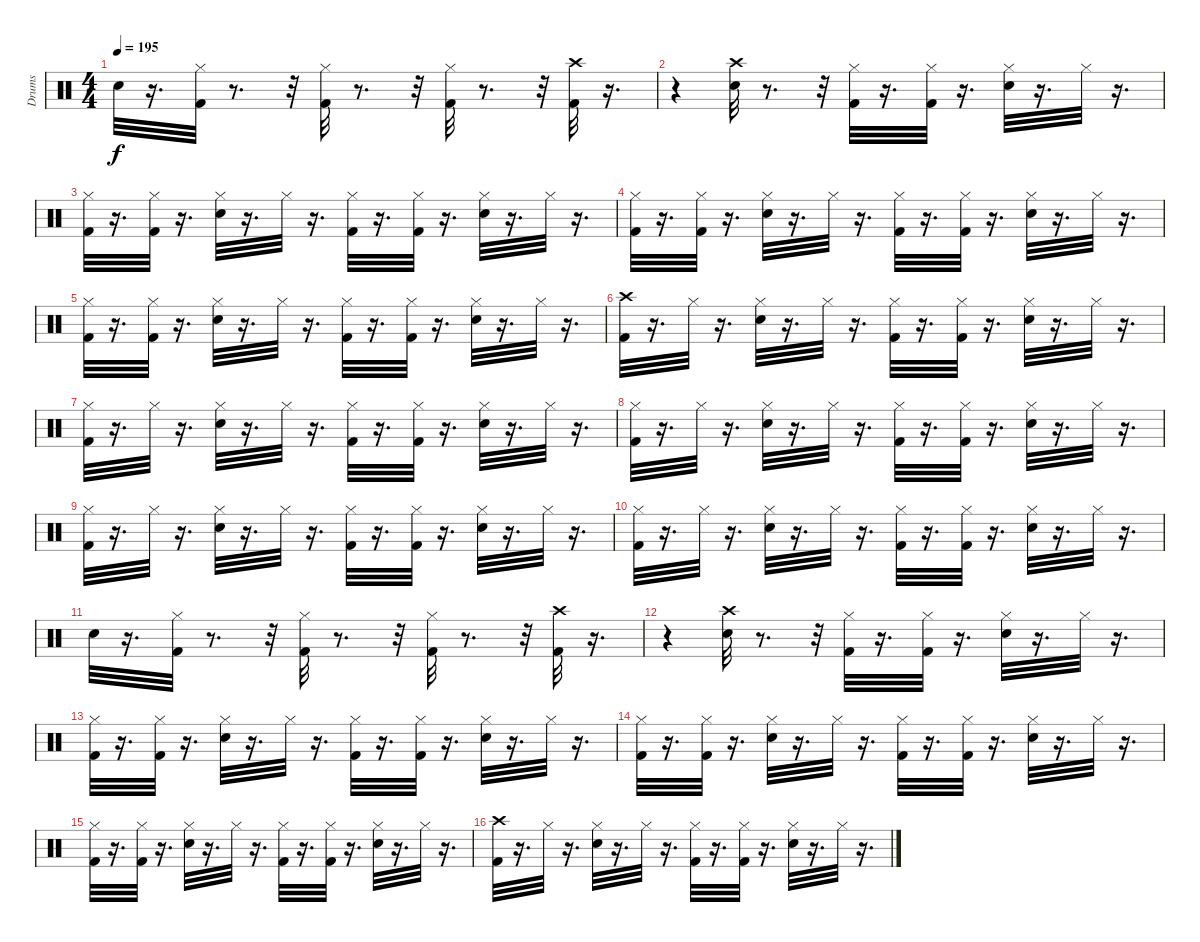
\track ("Drums" "Drums") {instrument percussion}
\staff {score}
\articulation defaults
\ts (4 4)
\tempo 195
\clef neutral
\ks c "Snare (hit) 2".32{dy f}
r.16{d} ("Hi-Hat (closed)" "Kick (hit) 2").32 r.8{d} r.32 ("Hi-Hat (closed)" "Kick (hit) 2").32 r.8{d} r.32 ("Hi-Hat (closed)" "Kick (hit) 2").32 r.8{d} r.32 ("Crash high (hit)" "Kick (hit) 2").32 r.16{d} |
r.4 ("Crash high (hit)" "Snare (hit) 2").32 r.8{d} r.32 ("Hi-Hat (closed)" "Kick (hit) 2").32 r.16{d} ("Hi-Hat (closed)" "Kick (hit) 2").32 r.16{d} ("Hi-Hat (closed)" "Snare (hit) 2").32 r.16{d} "Hi-Hat (closed)".32 r.16{d} |
("Hi-Hat (closed)" "Kick (hit) 2").32 r.16{d} ("Hi-Hat (closed)" "Kick (hit) 2").32 r.16{d} ("Hi-Hat (closed)" "Snare (hit) 2").32 r.16{d} "Hi-Hat (closed)".32 r.16{d} ("Hi-Hat (closed)" "Kick (hit) 2").32 r.16{d} ("Hi-Hat (closed)" "Kick (hit) 2").32 r.16{d} ("Hi-Hat (closed)" "Snare (hit) 2").32 r.16{d} "Hi-Hat (closed)".32 r.16{d} |
("Hi-Hat (closed)" "Kick (hit) 2").32 r.16{d} ("Hi-Hat (closed)" "Kick (hit) 2").32 r.16{d} ("Hi-Hat (closed)" "Snare (hit) 2").32 r.16{d} "Hi-Hat (closed)".32 r.16{d} ("Hi-Hat (closed)" "Kick (hit) 2").32 r.16{d} ("Hi-Hat (closed)" "Kick (hit) 2").32 r.16{d} ("Hi-Hat (closed)" "Snare (hit) 2").32 r.16{d} "Hi-Hat (closed)".32 r.16{d} |
("Hi-Hat (closed)" "Kick (hit) 2").32 r.16{d} ("Hi-Hat (closed)" "Kick (hit) 2").32 r.16{d} ("Hi-Hat (closed)" "Snare (hit) 2").32 r.16{d} "Hi-Hat (closed)".32 r.16{d} ("Hi-Hat (closed)" "Kick (hit) 2").32 r.16{d} ("Hi-Hat (closed)" "Kick (hit) 2").32 r.16{d} ("Hi-Hat (closed)" "Snare (hit) 2").32 r.16{d} "Hi-Hat (closed)".32 r.16{d} |
("Crash high (hit)" "Kick (hit) 2").32 r.16{d} "Hi-Hat (closed)".32 r.16{d} ("Hi-Hat (closed)" "Snare (hit) 2").32 r.16{d} "Hi-Hat (closed)".32 r.16{d} ("Hi-Hat (closed)" "Kick (hit) 2").32 r.16{d} ("Hi-Hat (closed)" "Kick (hit) 2").32 r.16{d} ("Hi-Hat (closed)" "Snare (hit) 2").32 r.16{d} "Hi-Hat (closed)".32 r.16{d} |
("Hi-Hat (closed)" "Kick (hit) 2").32 r.16{d} "Hi-Hat (closed)".32 r.16{d} ("Hi-Hat (closed)" "Snare (hit) 2").32 r.16{d} "Hi-Hat (closed)".32 r.16{d} ("Hi-Hat (closed)" "Kick (hit) 2").32 r.16{d} ("Hi-Hat (closed)" "Kick (hit) 2").32 r.16{d} ("Hi-Hat (closed)" "Snare (hit) 2").32 r.16{d} "Hi-Hat (closed)".32 r.16{d} |
("Hi-Hat (closed)" "Kick (hit) 2").32 r.16{d} "Hi-Hat (closed)".32 r.16{d} ("Hi-Hat (closed)" "Snare (hit) 2").32 r.16{d} "Hi-Hat (closed)".32 r.16{d} ("Hi-Hat (closed)" "Kick (hit) 2").32 r.16{d} ("Hi-Hat (closed)" "Kick (hit) 2").32 r.16{d} ("Hi-Hat (closed)" "Snare (hit) 2").32 r.16{d} "Hi-Hat (closed)".32 r.16{d} |
("Hi-Hat (closed)" "Kick (hit) 2").32 r.16{d} "Hi-Hat (closed)".32 r.16{d} ("Hi-Hat (closed)" "Snare (hit) 2").32 r.16{d} "Hi-Hat (closed)".32 r.16{d} ("Hi-Hat (closed)" "Kick (hit) 2").32 r.16{d} ("Hi-Hat (closed)" "Kick (hit) 2").32 r.16{d} ("Hi-Hat (closed)" "Snare (hit) 2").32 r.16{d} "Hi-Hat (closed)".32 r.16{d} |
("Hi-Hat (closed)" "Kick (hit) 2").32 r.16{d} "Hi-Hat (closed)".32 r.16{d} ("Hi-Hat (closed)" "Snare (hit) 2").32 r.16{d} "Hi-Hat (closed)".32 r.16{d} ("Hi-Hat (closed)" "Kick (hit) 2").32 r.16{d} ("Hi-Hat (closed)" "Kick (hit) 2").32 r.16{d} ("Hi-Hat (closed)" "Snare (hit) 2").32 r.16{d} "Hi-Hat (closed)".32 r.16{d} |
"Snare (hit) 2".32 r.16{d} ("Hi-Hat (closed)" "Kick (hit) 2").32 r.8{d} r.32 ("Hi-Hat (closed)" "Kick (hit) 2").32 r.8{d} r.32 ("Hi-Hat (closed)" "Kick (hit) 2").32 r.8{d} r.32 ("Crash high (hit)" "Kick (hit) 2").32 r.16{d} |
r.4 ("Crash high (hit)" "Snare (hit) 2").32 r.8{d} r.32 ("Hi-Hat (closed)" "Kick (hit) 2").32 r.16{d} ("Hi-Hat (closed)" "Kick (hit) 2").32 r.16{d} ("Hi-Hat (closed)" "Snare (hit) 2").32 r.16{d} "Hi-Hat (closed)".32 r.16{d} |
("Hi-Hat (closed)" "Kick (hit) 2").32 r.16{d} ("Hi-Hat (closed)" "Kick (hit) 2").32 r.16{d} ("Hi-Hat (closed)" "Snare (hit) 2").32 r.16{d} "Hi-Hat (closed)".32 r.16{d} ("Hi-Hat (closed)" "Kick (hit) 2").32 r.16{d} ("Hi-Hat (closed)" "Kick (hit) 2").32 r.16{d} ("Hi-Hat (closed)" "Snare (hit) 2").32 r.16{d} "Hi-Hat (closed)".32 r.16{d} |
("Hi-Hat (closed)" "Kick (hit) 2").32 r.16{d} ("Hi-Hat (closed)" "Kick (hit) 2").32 r.16{d} ("Hi-Hat (closed)" "Snare (hit) 2").32 r.16{d} "Hi-Hat (closed)".32 r.16{d} ("Hi-Hat (closed)" "Kick (hit) 2").32 r.16{d} ("Hi-Hat (closed)" "Kick (hit) 2").32 r.16{d} ("Hi-Hat (closed)" "Snare (hit) 2").32 r.16{d} "Hi-Hat (closed)".32 r.16{d} |
("Hi-Hat (closed)" "Kick (hit) 2").32 r.16{d} ("Hi-Hat (closed)" "Kick (hit) 2").32 r.16{d} ("Hi-Hat (closed)" "Snare (hit) 2").32 r.16{d} "Hi-Hat (closed)".32 r.16{d} ("Hi-Hat (closed)" "Kick (hit) 2").32 r.16{d} ("Hi-Hat (closed)" "Kick (hit) 2").32 r.16{d} ("Hi-Hat (closed)" "Snare (hit) 2").32 r.16{d} "Hi-Hat (closed)".32 r.16{d} |
("Crash high (hit)" "Kick (hit) 2").32 r.16{d} "Hi-Hat (closed)".32 r.16{d} ("Hi-Hat (closed)" "Snare (hit) 2").32 r.16{d} "Hi-Hat (closed)".32 r.16{d} ("Hi-Hat (closed)" "Kick (hit) 2").32 r.16{d} ("Hi-Hat (closed)" "Kick (hit) 2").32 r.16{d} ("Hi-Hat (closed)" "Snare (hit) 2").32 r.16{d} "Hi-Hat (closed)".32 r.16{d}
